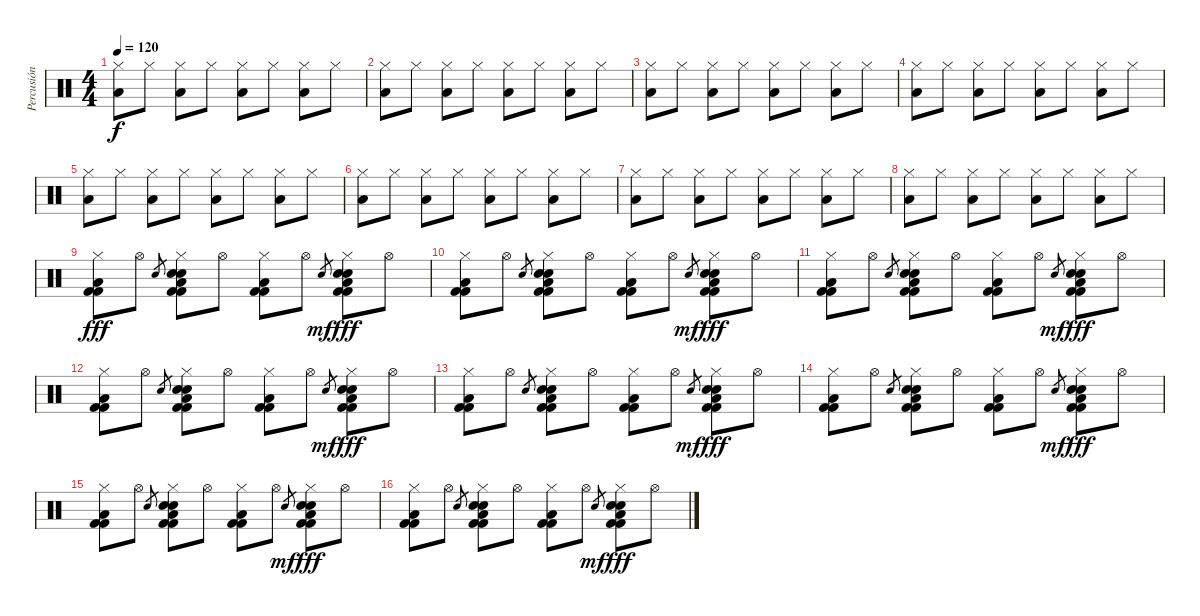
\track ("Percusión I" "Percusión ") {instrument percussion}
\staff {score}
\articulation defaults
\ts (4 4)
\tempo 120
\clef neutral
\ks c
("Hi-Hat (closed)" "Low Floor Tom (hit)").8{dy f} "Hi-Hat (closed)".8 ("Hi-Hat (closed)" "Low Floor Tom (hit)").8 "Hi-Hat (closed)".8 ("Hi-Hat (closed)" "Low Floor Tom (hit)").8 "Hi-Hat (closed)".8 ("Hi-Hat (closed)" "Low Floor Tom (hit)").8 "Hi-Hat (closed)".8 |
("Hi-Hat (closed)" "Low Floor Tom (hit)").8 "Hi-Hat (closed)".8 ("Hi-Hat (closed)" "Low Floor Tom (hit)").8 "Hi-Hat (closed)".8 ("Hi-Hat (closed)" "Low Floor Tom (hit)").8 "Hi-Hat (closed)".8 ("Hi-Hat (closed)" "Low Floor Tom (hit)").8 "Hi-Hat (closed)".8 |
("Hi-Hat (closed)" "Low Floor Tom (hit)").8 "Hi-Hat (closed)".8 ("Hi-Hat (closed)" "Low Floor Tom (hit)").8 "Hi-Hat (closed)".8 ("Hi-Hat (closed)" "Low Floor Tom (hit)").8 "Hi-Hat (closed)".8 ("Hi-Hat (closed)" "Low Floor Tom (hit)").8 "Hi-Hat (closed)".8 |
("Hi-Hat (closed)" "Low Floor Tom (hit)").8 "Hi-Hat (closed)".8 ("Hi-Hat (closed)" "Low Floor Tom (hit)").8 "Hi-Hat (closed)".8 ("Hi-Hat (closed)" "Low Floor Tom (hit)").8 "Hi-Hat (closed)".8 ("Hi-Hat (closed)" "Low Floor Tom (hit)").8 "Hi-Hat (closed)".8 |
("Hi-Hat (closed)" "Low Floor Tom (hit)").8 "Hi-Hat (closed)".8 ("Hi-Hat (closed)" "Low Floor Tom (hit)").8 "Hi-Hat (closed)".8 ("Hi-Hat (closed)" "Low Floor Tom (hit)").8 "Hi-Hat (closed)".8 ("Hi-Hat (closed)" "Low Floor Tom (hit)").8 "Hi-Hat (closed)".8 |
("Hi-Hat (closed)" "Low Floor Tom (hit)").8 "Hi-Hat (closed)".8 ("Hi-Hat (closed)" "Low Floor Tom (hit)").8 "Hi-Hat (closed)".8 ("Hi-Hat (closed)" "Low Floor Tom (hit)").8 "Hi-Hat (closed)".8 ("Hi-Hat (closed)" "Low Floor Tom (hit)").8 "Hi-Hat (closed)".8 |
("Hi-Hat (closed)" "Low Floor Tom (hit)").8 "Hi-Hat (closed)".8 ("Hi-Hat (closed)" "Low Floor Tom (hit)").8 "Hi-Hat (closed)".8 ("Hi-Hat (closed)" "Low Floor Tom (hit)").8 "Hi-Hat (closed)".8 ("Hi-Hat (closed)" "Low Floor Tom (hit)").8 "Hi-Hat (closed)".8 |
("Hi-Hat (closed)" "Low Floor Tom (hit)").8 "Hi-Hat (closed)".8 ("Hi-Hat (closed)" "Low Floor Tom (hit)").8 "Hi-Hat (closed)".8 ("Hi-Hat (closed)" "Low Floor Tom (hit)").8 "Hi-Hat (closed)".8 ("Hi-Hat (closed)" "Low Floor Tom (hit)").8 "Hi-Hat (closed)".8 |
("Kick (hit) 2" "Hi-Hat (closed)" "Low Floor Tom (hit)" "Kick (hit) 2").8{dy fff} "Hi-Hat (open)".8 "Hand Clap (hit)".8{gr} ("Kick (hit) 2" "Hi-Hat (closed)" "Electric Snare (hit)" "Hand Clap (hit)" "Low Floor Tom (hit)" "Kick (hit) 2").8 "Hi-Hat (open)".8 ("Kick (hit) 2" "Hi-Hat (closed)" "Low Floor Tom (hit)" "Kick (hit) 2").8 "Hi-Hat (open)".8 "Hand Clap (hit)".8{gr dy mf} ("Kick (hit) 2" "Hi-Hat (closed)" "Electric Snare (hit)" "Hand Clap (hit)" "Low Floor Tom (hit)" "Kick (hit) 2").8{dy fff} "Hi-Hat (open)".8 |
("Kick (hit) 2" "Hi-Hat (closed)" "Low Floor Tom (hit)" "Kick (hit) 2").8 "Hi-Hat (open)".8 "Hand Clap (hit)".8{gr} ("Kick (hit) 2" "Hi-Hat (closed)" "Electric Snare (hit)" "Hand Clap (hit)" "Low Floor Tom (hit)" "Kick (hit) 2").8 "Hi-Hat (open)".8 ("Kick (hit) 2" "Hi-Hat (closed)" "Low Floor Tom (hit)" "Kick (hit) 2").8 "Hi-Hat (open)".8 "Hand Clap (hit)".8{gr dy mf} ("Kick (hit) 2" "Hi-Hat (closed)" "Electric Snare (hit)" "Hand Clap (hit)" "Low Floor Tom (hit)" "Kick (hit) 2").8{dy fff} "Hi-Hat (open)".8 |
("Kick (hit) 2" "Hi-Hat (closed)" "Low Floor Tom (hit)" "Kick (hit) 2").8 "Hi-Hat (open)".8 "Hand Clap (hit)".8{gr} ("Kick (hit) 2" "Hi-Hat (closed)" "Electric Snare (hit)" "Hand Clap (hit)" "Low Floor Tom (hit)" "Kick (hit) 2").8 "Hi-Hat (open)".8 ("Kick (hit) 2" "Hi-Hat (closed)" "Low Floor Tom (hit)" "Kick (hit) 2").8 "Hi-Hat (open)".8 "Hand Clap (hit)".8{gr dy mf} ("Kick (hit) 2" "Hi-Hat (closed)" "Electric Snare (hit)" "Hand Clap (hit)" "Low Floor Tom (hit)" "Kick (hit) 2").8{dy fff} "Hi-Hat (open)".8 |
("Kick (hit) 2" "Hi-Hat (closed)" "Low Floor Tom (hit)" "Kick (hit) 2").8 "Hi-Hat (open)".8 "Hand Clap (hit)".8{gr} ("Kick (hit) 2" "Hi-Hat (closed)" "Electric Snare (hit)" "Hand Clap (hit)" "Low Floor Tom (hit)" "Kick (hit) 2").8 "Hi-Hat (open)".8 ("Kick (hit) 2" "Hi-Hat (closed)" "Low Floor Tom (hit)" "Kick (hit) 2").8 "Hi-Hat (open)".8 "Hand Clap (hit)".8{gr dy mf} ("Kick (hit) 2" "Hi-Hat (closed)" "Electric Snare (hit)" "Hand Clap (hit)" "Low Floor Tom (hit)" "Kick (hit) 2").8{dy fff} "Hi-Hat (open)".8 |
("Kick (hit) 2" "Hi-Hat (closed)" "Low Floor Tom (hit)" "Kick (hit) 2").8 "Hi-Hat (open)".8 "Hand Clap (hit)".8{gr} ("Kick (hit) 2" "Hi-Hat (closed)" "Electric Snare (hit)" "Hand Clap (hit)" "Low Floor Tom (hit)" "Kick (hit) 2").8 "Hi-Hat (open)".8 ("Kick (hit) 2" "Hi-Hat (closed)" "Low Floor Tom (hit)" "Kick (hit) 2").8 "Hi-Hat (open)".8 "Hand Clap (hit)".8{gr dy mf} ("Kick (hit) 2" "Hi-Hat (closed)" "Electric Snare (hit)" "Hand Clap (hit)" "Low Floor Tom (hit)" "Kick (hit) 2").8{dy fff} "Hi-Hat (open)".8 |
("Kick (hit) 2" "Hi-Hat (closed)" "Low Floor Tom (hit)" "Kick (hit) 2").8 "Hi-Hat (open)".8 "Hand Clap (hit)".8{gr} ("Kick (hit) 2" "Hi-Hat (closed)" "Electric Snare (hit)" "Hand Clap (hit)" "Low Floor Tom (hit)" "Kick (hit) 2").8 "Hi-Hat (open)".8 ("Kick (hit) 2" "Hi-Hat (closed)" "Low Floor Tom (hit)" "Kick (hit) 2").8 "Hi-Hat (open)".8 "Hand Clap (hit)".8{gr dy mf} ("Kick (hit) 2" "Hi-Hat (closed)" "Electric Snare (hit)" "Hand Clap (hit)" "Low Floor Tom (hit)" "Kick (hit) 2").8{dy fff} "Hi-Hat (open)".8 |
("Kick (hit) 2" "Hi-Hat (closed)" "Low Floor Tom (hit)" "Kick (hit) 2").8 "Hi-Hat (open)".8 "Hand Clap (hit)".8{gr} ("Kick (hit) 2" "Hi-Hat (closed)" "Electric Snare (hit)" "Hand Clap (hit)" "Low Floor Tom (hit)" "Kick (hit) 2").8 "Hi-Hat (open)".8 ("Kick (hit) 2" "Hi-Hat (closed)" "Low Floor Tom (hit)" "Kick (hit) 2").8 "Hi-Hat (open)".8 "Hand Clap (hit)".8{gr dy mf} ("Kick (hit) 2" "Hi-Hat (closed)" "Electric Snare (hit)" "Hand Clap (hit)" "Low Floor Tom (hit)" "Kick (hit) 2").8{dy fff} "Hi-Hat (open)".8 |
("Kick (hit) 2" "Hi-Hat (closed)" "Low Floor Tom (hit)" "Kick (hit) 2").8 "Hi-Hat (open)".8 "Hand Clap (hit)".8{gr} ("Kick (hit) 2" "Hi-Hat (closed)" "Electric Snare (hit)" "Hand Clap (hit)" "Low Floor Tom (hit)" "Kick (hit) 2").8 "Hi-Hat (open)".8 ("Kick (hit) 2" "Hi-Hat (closed)" "Low Floor Tom (hit)" "Kick (hit) 2").8 "Hi-Hat (open)".8 "Hand Clap (hit)".8{gr dy mf} ("Kick (hit) 2" "Hi-Hat (closed)" "Electric Snare (hit)" "Hand Clap (hit)" "Low Floor Tom (hit)" "Kick (hit) 2").8{dy fff} "Hi-Hat (open)".8
